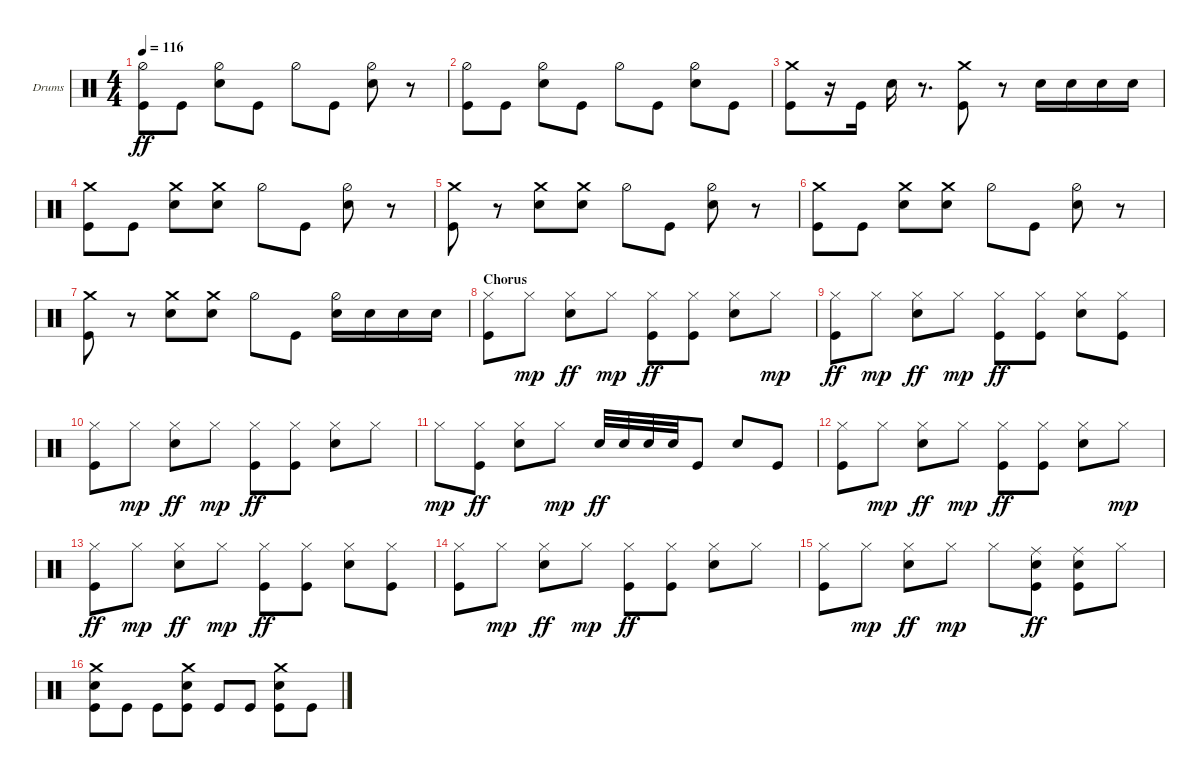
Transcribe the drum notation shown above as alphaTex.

\defaultSystemsLayout 4
\bracketExtendMode groupsimilarinstruments
\firstSystemTrackNameOrientation horizontal
\otherSystemsTrackNameOrientation horizontal
\track ("Drumkit" "Drums") {instrument percussion}
\staff {score}
\articulation defaults
\ts (4 4)
\tempo 116
\clef neutral
\ks c
("Hi-Hat (half)" "Kick (hit)").8{dy ff} "Kick (hit)".8 ("Hi-Hat (half)" "Snare (hit) 2").8 "Kick (hit)".8 "Hi-Hat (half)".8 "Kick (hit)".8 ("Hi-Hat (half)" "Snare (hit) 2").8 r.8 |
("Hi-Hat (half)" "Kick (hit)").8 "Kick (hit)".8 ("Hi-Hat (half)" "Snare (hit) 2").8 "Kick (hit)".8 "Hi-Hat (half)".8 "Kick (hit)".8 ("Hi-Hat (half)" "Snare (hit) 2").8 "Kick (hit)".8 |
("Kick (hit)" "Crash medium (hit)").8 r.16 "Kick (hit)".16 "Snare (hit) 2".16 r.8{d} ("Kick (hit)" "Crash medium (hit)").8 r.8 "Snare (hit) 2".16 "Snare (hit) 2".16 "Snare (hit) 2".16 "Snare (hit) 2".16 |
("Crash medium (hit)" "Kick (hit)").8 "Kick (hit)".8 ("Snare (hit) 2" "Crash medium (hit)").8 ("Snare (hit) 2" "Crash medium (hit)").8 "Hi-Hat (half)".8 "Kick (hit)".8 ("Hi-Hat (half)" "Snare (hit) 2").8 r.8 |
("Crash medium (hit)" "Kick (hit)").8 r.8 ("Snare (hit) 2" "Crash medium (hit)").8 ("Snare (hit) 2" "Crash medium (hit)").8 "Hi-Hat (half)".8 "Kick (hit)".8 ("Hi-Hat (half)" "Snare (hit) 2").8 r.8 |
("Crash medium (hit)" "Kick (hit)").8 "Kick (hit)".8 ("Snare (hit) 2" "Crash medium (hit)").8 ("Snare (hit) 2" "Crash medium (hit)").8 "Hi-Hat (half)".8 "Kick (hit)".8 ("Hi-Hat (half)" "Snare (hit) 2").8 r.8 |
("Crash medium (hit)" "Kick (hit)").8 r.8 ("Snare (hit) 2" "Crash medium (hit)").8 ("Snare (hit) 2" "Crash medium (hit)").8 "Hi-Hat (half)".8 "Kick (hit)".8 ("Hi-Hat (half)" "Snare (hit) 2").16 "Snare (hit) 2".16 "Snare (hit) 2".16 "Snare (hit) 2".16 |
\section ("" "Chorus")
("Kick (hit)" "Hi-Hat (closed)").8 "Hi-Hat (closed)".8{dy mp} ("Snare (hit) 2" "Hi-Hat (closed)").8{dy ff} "Hi-Hat (closed)".8{dy mp} ("Kick (hit)" "Hi-Hat (closed)").8{dy ff} ("Kick (hit)" "Hi-Hat (closed)").8 ("Snare (hit) 2" "Hi-Hat (closed)").8 "Hi-Hat (closed)".8{dy mp} |
("Kick (hit)" "Hi-Hat (closed)").8{dy ff} "Hi-Hat (closed)".8{dy mp} ("Snare (hit) 2" "Hi-Hat (closed)").8{dy ff} "Hi-Hat (closed)".8{dy mp} ("Kick (hit)" "Hi-Hat (closed)").8{dy ff} ("Kick (hit)" "Hi-Hat (closed)").8 ("Snare (hit) 2" "Hi-Hat (closed)").8 ("Hi-Hat (closed)" "Kick (hit)").8 |
("Kick (hit)" "Hi-Hat (closed)").8 "Hi-Hat (closed)".8{dy mp} ("Snare (hit) 2" "Hi-Hat (closed)").8{dy ff} "Hi-Hat (closed)".8{dy mp} ("Kick (hit)" "Hi-Hat (closed)").8{dy ff} ("Kick (hit)" "Hi-Hat (closed)").8 ("Snare (hit) 2" "Hi-Hat (closed)").8 "Hi-Hat (closed)".8 |
"Hi-Hat (closed)".8{dy mp} ("Hi-Hat (closed)" "Kick (hit)").8{dy ff} ("Hi-Hat (closed)" "Snare (hit) 2").8 "Hi-Hat (closed)".8{dy mp} "Snare (hit) 2".32{dy ff} "Snare (hit) 2".32 "Snare (hit) 2".32 "Snare (hit) 2".32 "Kick (hit)".8 "Snare (hit) 2".8 "Kick (hit)".8 |
("Kick (hit)" "Hi-Hat (closed)").8 "Hi-Hat (closed)".8{dy mp} ("Snare (hit) 2" "Hi-Hat (closed)").8{dy ff} "Hi-Hat (closed)".8{dy mp} ("Kick (hit)" "Hi-Hat (closed)").8{dy ff} ("Kick (hit)" "Hi-Hat (closed)").8 ("Snare (hit) 2" "Hi-Hat (closed)").8 "Hi-Hat (closed)".8{dy mp} |
("Kick (hit)" "Hi-Hat (closed)").8{dy ff} "Hi-Hat (closed)".8{dy mp} ("Snare (hit) 2" "Hi-Hat (closed)").8{dy ff} "Hi-Hat (closed)".8{dy mp} ("Kick (hit)" "Hi-Hat (closed)").8{dy ff} ("Kick (hit)" "Hi-Hat (closed)").8 ("Snare (hit) 2" "Hi-Hat (closed)").8 ("Hi-Hat (closed)" "Kick (hit)").8 |
("Kick (hit)" "Hi-Hat (closed)").8 "Hi-Hat (closed)".8{dy mp} ("Snare (hit) 2" "Hi-Hat (closed)").8{dy ff} "Hi-Hat (closed)".8{dy mp} ("Kick (hit)" "Hi-Hat (closed)").8{dy ff} ("Kick (hit)" "Hi-Hat (closed)").8 ("Snare (hit) 2" "Hi-Hat (closed)").8 "Hi-Hat (closed)".8 |
("Kick (hit)" "Hi-Hat (closed)").8 "Hi-Hat (closed)".8{dy mp} ("Snare (hit) 2" "Hi-Hat (closed)").8{dy ff} "Hi-Hat (closed)".8{dy mp} "Hi-Hat (closed)".8 ("Ride (middle)" "Kick (hit)" "Snare (hit) 2").8{dy ff} ("Ride (middle)" "Kick (hit)" "Snare (hit) 2").8 "Hi-Hat (closed)".8 |
("Crash medium (hit)" "Snare (hit) 2" "Kick (hit)").8 "Kick (hit)".8 "Kick (hit)".8 ("Snare (hit) 2" "Kick (hit)" "Crash medium (hit)").8 "Kick (hit)".8 "Kick (hit)".8 ("Snare (hit) 2" "Kick (hit)" "Crash medium (hit)").8 "Kick (hit)".8
